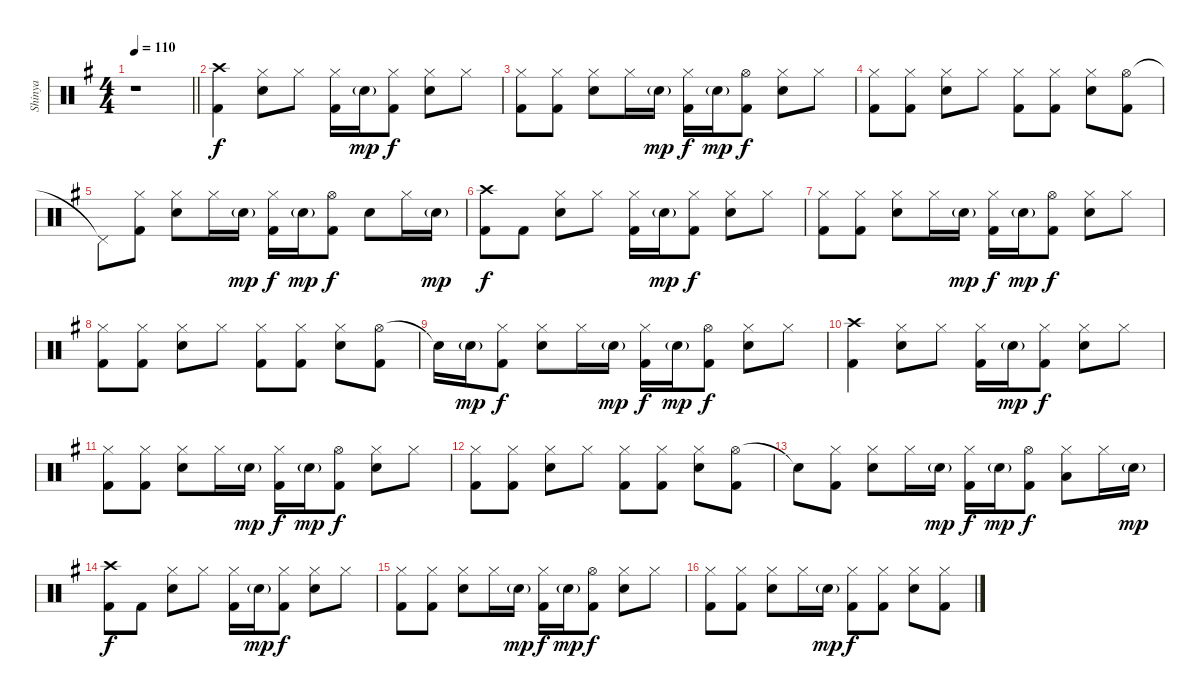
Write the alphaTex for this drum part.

\track ("Shinya" "Shinya") {instrument percussion}
\staff {score}
\articulation defaults
\ts (4 4)
\tempo 110
\clef neutral
\barLineRight lightlight
\ks g
r.1{dy f} |
("Crash high (hit)" "Kick (hit) 2").4 ("Hi-Hat (closed)" "Electric Snare (hit)").8 "Hi-Hat (closed)".8 ("Hi-Hat (closed)" "Kick (hit) 2").16 "Electric Snare (hit)"{g}.16{dy mp} ("Hi-Hat (closed)" "Kick (hit) 2").8{dy f} ("Hi-Hat (closed)" "Electric Snare (hit)").8 "Hi-Hat (closed)".8 |
("Hi-Hat (closed)" "Kick (hit) 2").8 ("Hi-Hat (closed)" "Kick (hit) 2").8 ("Hi-Hat (closed)" "Electric Snare (hit)").8 "Hi-Hat (closed)".16 "Electric Snare (hit)"{g}.16{dy mp} ("Hi-Hat (closed)" "Kick (hit) 2").16{dy f} "Electric Snare (hit)"{g}.16{dy mp} ("Hi-Hat (open)" "Kick (hit) 2").8{dy f} ("Hi-Hat (closed)" "Electric Snare (hit)").8 "Hi-Hat (closed)".8 |
("Hi-Hat (closed)" "Kick (hit) 2").8 ("Hi-Hat (closed)" "Kick (hit) 2").8 ("Hi-Hat (closed)" "Electric Snare (hit)").8 "Hi-Hat (closed)".8 ("Hi-Hat (closed)" "Kick (hit) 2").8 ("Hi-Hat (closed)" "Kick (hit) 2").8 ("Hi-Hat (closed)" "Electric Snare (hit)").8 ("Hi-Hat (open)" "Kick (hit) 2").8 |
"Pedal Hi-Hat (hit)"{t}.8 ("Hi-Hat (closed)" "Kick (hit) 2").8 ("Hi-Hat (closed)" "Electric Snare (hit)").8 "Hi-Hat (closed)".16 "Electric Snare (hit)"{g}.16{dy mp} ("Hi-Hat (closed)" "Kick (hit) 2").16{dy f} "Electric Snare (hit)"{g}.16{dy mp} ("Hi-Hat (open)" "Kick (hit) 2").8{dy f} "Electric Snare (hit)".8 "Hi-Hat (closed)".16 "Electric Snare (hit)"{g}.16{dy mp} |
("Crash high (hit)" "Kick (hit) 2").8{dy f} "Kick (hit) 2".8 ("Hi-Hat (closed)" "Electric Snare (hit)").8 "Hi-Hat (closed)".8 ("Hi-Hat (closed)" "Kick (hit) 2").16 "Electric Snare (hit)"{g}.16{dy mp} ("Hi-Hat (closed)" "Kick (hit) 2").8{dy f} ("Hi-Hat (closed)" "Electric Snare (hit)").8 "Hi-Hat (closed)".8 |
("Hi-Hat (closed)" "Kick (hit) 2").8 ("Hi-Hat (closed)" "Kick (hit) 2").8 ("Hi-Hat (closed)" "Electric Snare (hit)").8 "Hi-Hat (closed)".16 "Electric Snare (hit)"{g}.16{dy mp} ("Hi-Hat (closed)" "Kick (hit) 2").16{dy f} "Electric Snare (hit)"{g}.16{dy mp} ("Hi-Hat (open)" "Kick (hit) 2").8{dy f} ("Hi-Hat (closed)" "Electric Snare (hit)").8 "Hi-Hat (closed)".8 |
("Hi-Hat (closed)" "Kick (hit) 2").8 ("Hi-Hat (closed)" "Kick (hit) 2").8 ("Hi-Hat (closed)" "Electric Snare (hit)").8 "Hi-Hat (closed)".8 ("Hi-Hat (closed)" "Kick (hit) 2").8 ("Hi-Hat (closed)" "Kick (hit) 2").8 ("Hi-Hat (closed)" "Electric Snare (hit)").8 ("Hi-Hat (open)" "Kick (hit) 2").8 |
"Snare (hit)"{t}.16 "Electric Snare (hit)"{g}.16{dy mp} ("Hi-Hat (closed)" "Kick (hit) 2").8{dy f} ("Hi-Hat (closed)" "Electric Snare (hit)").8 "Hi-Hat (closed)".16 "Electric Snare (hit)"{g}.16{dy mp} ("Hi-Hat (closed)" "Kick (hit) 2").16{dy f} "Electric Snare (hit)"{g}.16{dy mp} ("Hi-Hat (open)" "Kick (hit) 2").8{dy f} ("Hi-Hat (closed)" "Electric Snare (hit)").8 "Hi-Hat (closed)".8 |
("Crash high (hit)" "Kick (hit) 2").4 ("Hi-Hat (closed)" "Electric Snare (hit)").8 "Hi-Hat (closed)".8 ("Hi-Hat (closed)" "Kick (hit) 2").16 "Electric Snare (hit)"{g}.16{dy mp} ("Hi-Hat (closed)" "Kick (hit) 2").8{dy f} ("Hi-Hat (closed)" "Electric Snare (hit)").8 "Hi-Hat (closed)".8 |
("Hi-Hat (closed)" "Kick (hit) 2").8 ("Hi-Hat (closed)" "Kick (hit) 2").8 ("Hi-Hat (closed)" "Electric Snare (hit)").8 "Hi-Hat (closed)".16 "Electric Snare (hit)"{g}.16{dy mp} ("Hi-Hat (closed)" "Kick (hit) 2").16{dy f} "Electric Snare (hit)"{g}.16{dy mp} ("Hi-Hat (open)" "Kick (hit) 2").8{dy f} ("Hi-Hat (closed)" "Electric Snare (hit)").8 "Hi-Hat (closed)".8 |
("Hi-Hat (closed)" "Kick (hit) 2").8 ("Hi-Hat (closed)" "Kick (hit) 2").8 ("Hi-Hat (closed)" "Electric Snare (hit)").8 "Hi-Hat (closed)".8 ("Hi-Hat (closed)" "Kick (hit) 2").8 ("Hi-Hat (closed)" "Kick (hit) 2").8 ("Hi-Hat (closed)" "Electric Snare (hit)").8 ("Hi-Hat (open)" "Kick (hit) 2").8 |
"Snare (hit)"{t}.8 ("Hi-Hat (closed)" "Kick (hit) 2").8 ("Hi-Hat (closed)" "Electric Snare (hit)").8 "Hi-Hat (closed)".16 "Electric Snare (hit)"{g}.16{dy mp} ("Hi-Hat (closed)" "Kick (hit) 2").16{dy f} "Electric Snare (hit)"{g}.16{dy mp} ("Hi-Hat (open)" "Kick (hit) 2").8{dy f} ("Hi-Hat (closed)" "Low Floor Tom (hit)").8 "Hi-Hat (closed)".16 "Electric Snare (hit)"{g}.16{dy mp} |
("Crash high (hit)" "Kick (hit) 2").8{dy f} "Kick (hit) 2".8 ("Hi-Hat (closed)" "Electric Snare (hit)").8 "Hi-Hat (closed)".8 ("Hi-Hat (closed)" "Kick (hit) 2").16 "Electric Snare (hit)"{g}.16{dy mp} ("Hi-Hat (closed)" "Kick (hit) 2").8{dy f} ("Hi-Hat (closed)" "Electric Snare (hit)").8 "Hi-Hat (closed)".8 |
("Hi-Hat (closed)" "Kick (hit) 2").8 ("Hi-Hat (closed)" "Kick (hit) 2").8 ("Hi-Hat (closed)" "Electric Snare (hit)").8 "Hi-Hat (closed)".16 "Electric Snare (hit)"{g}.16{dy mp} ("Hi-Hat (closed)" "Kick (hit) 2").16{dy f} "Electric Snare (hit)"{g}.16{dy mp} ("Hi-Hat (open)" "Kick (hit) 2").8{dy f} ("Hi-Hat (closed)" "Electric Snare (hit)").8 "Hi-Hat (closed)".8 |
("Hi-Hat (closed)" "Kick (hit) 2").8 ("Hi-Hat (closed)" "Kick (hit) 2").8 ("Hi-Hat (closed)" "Electric Snare (hit)").8 "Hi-Hat (closed)".16 "Electric Snare (hit)"{g}.16{dy mp} ("Hi-Hat (closed)" "Kick (hit) 2").8{dy f} ("Hi-Hat (closed)" "Kick (hit) 2").8 ("Hi-Hat (closed)" "Electric Snare (hit)").8 ("Hi-Hat (closed)" "Kick (hit) 2").8
